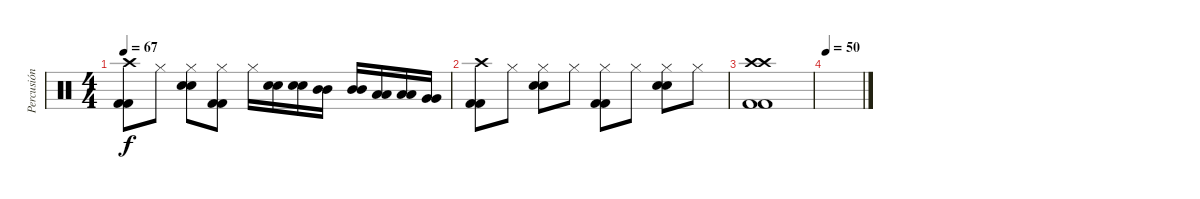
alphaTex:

\track ("Percusión" "Percusión") {instrument percussion}
\staff {score}
\articulation defaults
\ts (4 4)
\tempo 67
\clef neutral
\ks c
("Crash high (hit)" "Kick (hit) 2" "Kick (hit) 2").8{dy f} "Hi-Hat (closed)".8 ("Hi-Hat (closed)" "Electric Snare (hit)" "Electric Snare (hit)").8 ("Hi-Hat (closed)" "Kick (hit) 2" "Kick (hit) 2").8 "Hi-Hat (closed)".16 ("Electric Snare (hit)" "Electric Snare (hit)").16 ("Electric Snare (hit)" "Electric Snare (hit)").16 ("Mid Tom (hit)" "Mid Tom (hit)").16 ("Mid Tom (hit)" "Mid Tom (hit)").16 ("Low Tom (hit)" "Low Tom (hit)").16 ("Low Tom (hit)" "Low Tom (hit)").16 ("Very Low Tom (hit)" "Very Low Tom (hit)").16 |
("Crash high (hit)" "Kick (hit) 2" "Kick (hit) 2").8 "Hi-Hat (closed)".8 ("Hi-Hat (closed)" "Electric Snare (hit)" "Electric Snare (hit)").8 "Hi-Hat (closed)".8 ("Hi-Hat (closed)" "Kick (hit) 2" "Kick (hit) 2").8 "Hi-Hat (closed)".8 ("Hi-Hat (closed)" "Electric Snare (hit)" "Electric Snare (hit)").8 "Hi-Hat (closed)".8 |
("Crash high (hit)" "Crash high (hit)" "Kick (hit) 2" "Kick (hit) 2").1 |
\tempo 50
